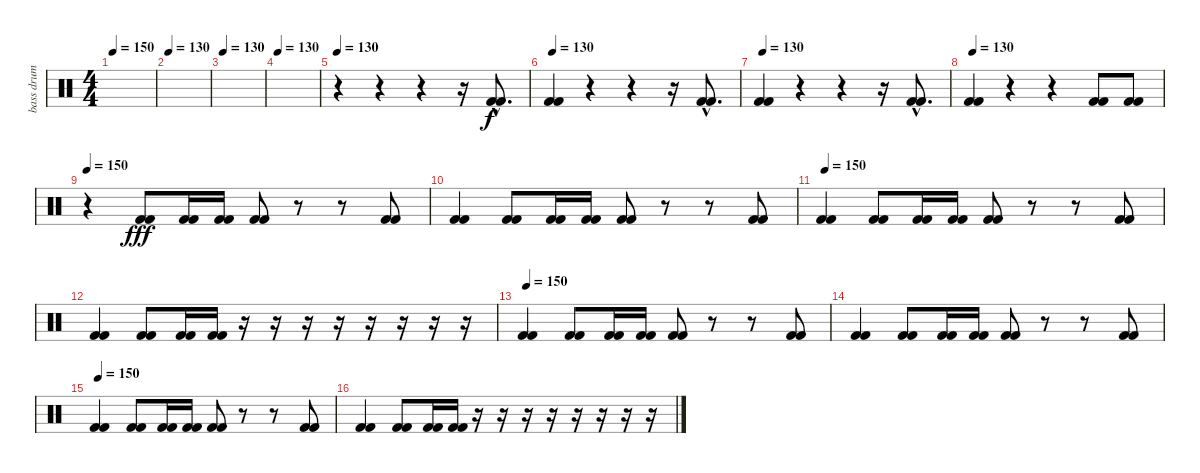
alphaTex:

\track ("bass drum" "bass drum") {instrument percussion}
\staff {score}
\articulation defaults
\ts (4 4)
\tempo 150
\tempo 130
\tempo 150
\clef neutral
\ks c
|
\tempo 130
|
\tempo 130
|
\tempo 130
|
\tempo 130
r.4 r.4 r.4 r.16 ("Kick (hit) 2"{hac} "Kick (hit) 2"{hac}).8{d} |
\tempo 130
("Kick (hit) 2" "Kick (hit) 2").4 r.4 r.4 r.16 ("Kick (hit) 2"{hac} "Kick (hit) 2"{hac}).8{d} |
\tempo 130
("Kick (hit) 2" "Kick (hit) 2").4 r.4 r.4 r.16 ("Kick (hit) 2"{hac} "Kick (hit) 2"{hac}).8{d} |
\tempo 130
("Kick (hit) 2" "Kick (hit) 2").4 r.4 r.4 ("Kick (hit) 2" "Kick (hit) 2").8 ("Kick (hit) 2" "Kick (hit) 2").8 |
\tempo 150
r.4{volume 16} ("Kick (hit) 2" "Kick (hit) 2").8{dy fff} ("Kick (hit) 2" "Kick (hit) 2").16 ("Kick (hit) 2" "Kick (hit) 2").16 ("Kick (hit) 2" "Kick (hit) 2").8 r.8 r.8 ("Kick (hit) 2" "Kick (hit) 2").8 |
("Kick (hit) 2" "Kick (hit) 2").4 ("Kick (hit) 2" "Kick (hit) 2").8 ("Kick (hit) 2" "Kick (hit) 2").16 ("Kick (hit) 2" "Kick (hit) 2").16 ("Kick (hit) 2" "Kick (hit) 2").8 r.8 r.8 ("Kick (hit) 2" "Kick (hit) 2").8 |
\tempo 150
("Kick (hit) 2" "Kick (hit) 2").4 ("Kick (hit) 2" "Kick (hit) 2").8 ("Kick (hit) 2" "Kick (hit) 2").16 ("Kick (hit) 2" "Kick (hit) 2").16 ("Kick (hit) 2" "Kick (hit) 2").8 r.8 r.8 ("Kick (hit) 2" "Kick (hit) 2").8 |
("Kick (hit) 2" "Kick (hit) 2").4 ("Kick (hit) 2" "Kick (hit) 2").8 ("Kick (hit) 2" "Kick (hit) 2").16 ("Kick (hit) 2" "Kick (hit) 2").16 r.16 r.16 r.16 r.16 r.16 r.16 r.16 r.16 |
\tempo 150
("Kick (hit) 2" "Kick (hit) 2").4 ("Kick (hit) 2" "Kick (hit) 2").8 ("Kick (hit) 2" "Kick (hit) 2").16 ("Kick (hit) 2" "Kick (hit) 2").16 ("Kick (hit) 2" "Kick (hit) 2").8 r.8 r.8 ("Kick (hit) 2" "Kick (hit) 2").8 |
("Kick (hit) 2" "Kick (hit) 2").4 ("Kick (hit) 2" "Kick (hit) 2").8 ("Kick (hit) 2" "Kick (hit) 2").16 ("Kick (hit) 2" "Kick (hit) 2").16 ("Kick (hit) 2" "Kick (hit) 2").8 r.8 r.8 ("Kick (hit) 2" "Kick (hit) 2").8 |
\tempo 150
("Kick (hit) 2" "Kick (hit) 2").4 ("Kick (hit) 2" "Kick (hit) 2").8 ("Kick (hit) 2" "Kick (hit) 2").16 ("Kick (hit) 2" "Kick (hit) 2").16 ("Kick (hit) 2" "Kick (hit) 2").8 r.8 r.8 ("Kick (hit) 2" "Kick (hit) 2").8 |
("Kick (hit) 2" "Kick (hit) 2").4 ("Kick (hit) 2" "Kick (hit) 2").8 ("Kick (hit) 2" "Kick (hit) 2").16 ("Kick (hit) 2" "Kick (hit) 2").16 r.16 r.16 r.16 r.16 r.16 r.16 r.16 r.16
